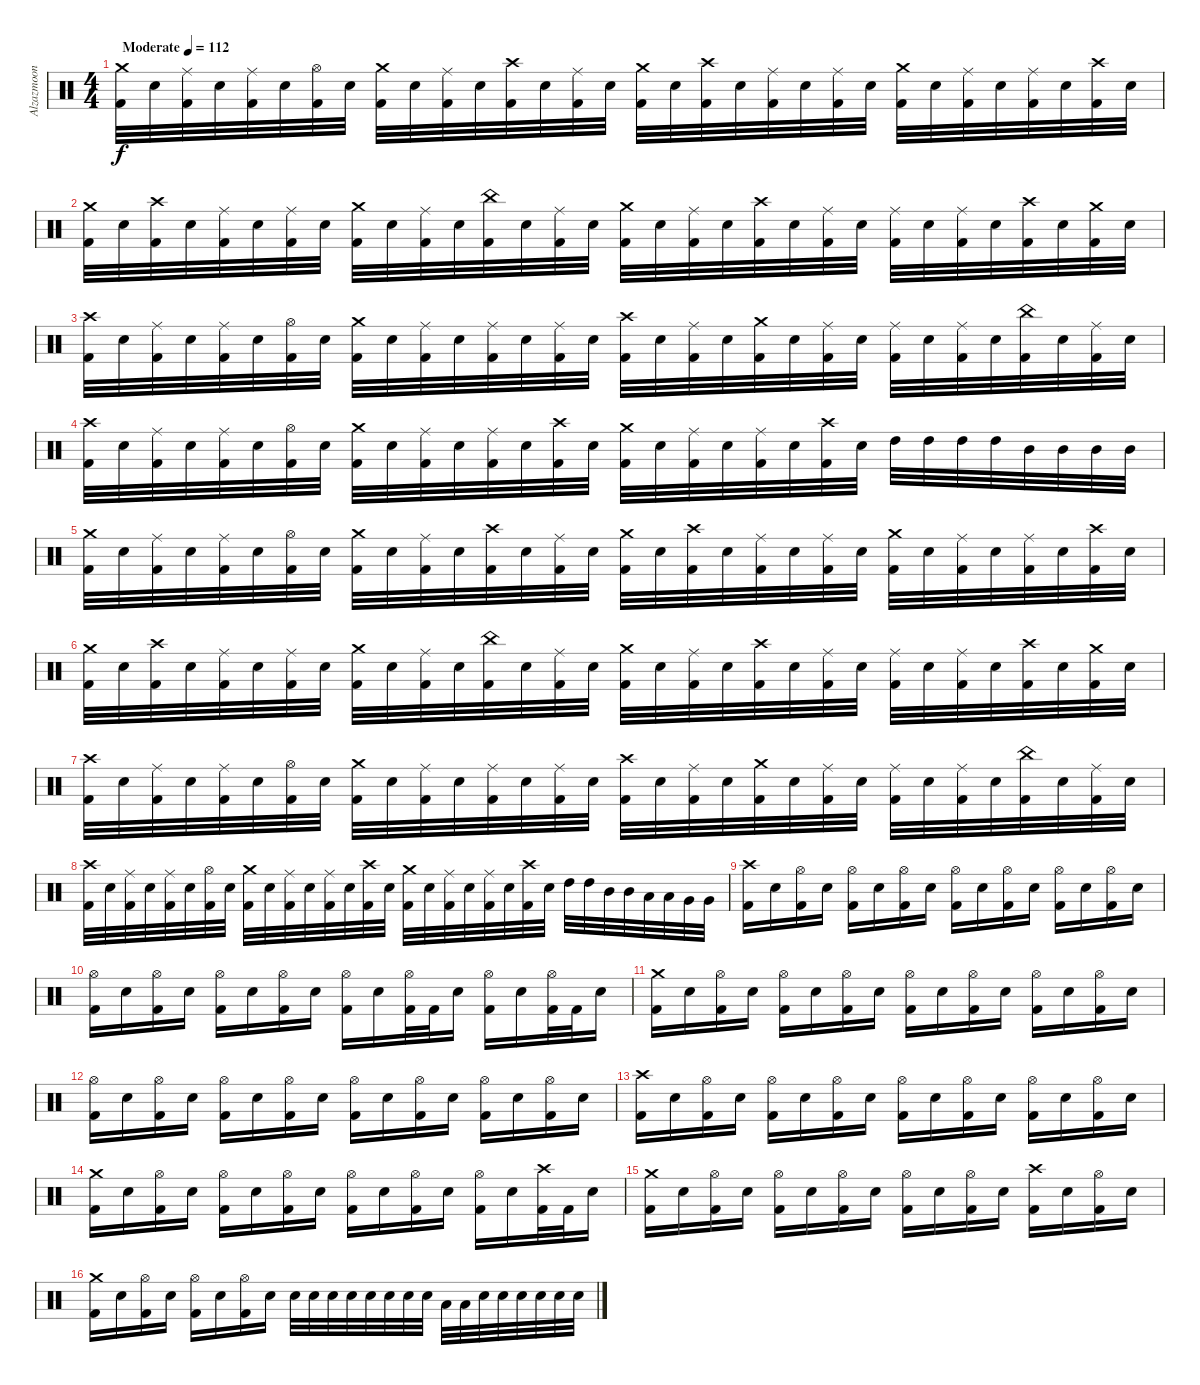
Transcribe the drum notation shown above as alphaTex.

\track ("Alzazmoon" "Alzazmoon") {instrument percussion}
\staff {score}
\articulation defaults
\ts (4 4)
\tempo (112 "Moderate")
\clef neutral
\ks c
("Crash medium (hit)" "Kick (hit) 2").32{dy f} "Snare (hit) 2".32 ("Ride (middle)" "Kick (hit) 2").32 "Snare (hit) 2".32 ("Ride (middle)" "Kick (hit) 2").32 "Snare (hit) 2".32 ("Hi-Hat (open)" "Kick (hit) 2").32 "Snare (hit) 2".32 ("Crash medium (hit)" "Kick (hit) 2").32 "Snare (hit) 2".32 ("Ride (middle)" "Kick (hit) 2").32 "Snare (hit) 2".32 ("Crash high (hit)" "Kick (hit) 2").32 "Snare (hit) 2".32 ("Ride (middle)" "Kick (hit) 2").32 "Snare (hit) 2".32 ("Crash medium (hit)" "Kick (hit) 2").32 "Snare (hit) 2".32 ("Crash high (hit)" "Kick (hit) 2").32 "Snare (hit) 2".32 ("Ride (middle)" "Kick (hit) 2").32 "Snare (hit) 2".32 ("Ride (middle)" "Kick (hit) 2").32 "Snare (hit) 2".32 ("Crash medium (hit)" "Kick (hit) 2").32 "Snare (hit) 2".32 ("Ride (middle)" "Kick (hit) 2").32 "Snare (hit) 2".32 ("Ride (middle)" "Kick (hit) 2").32 "Snare (hit) 2".32 ("Crash high (hit)" "Kick (hit) 2").32 "Snare (hit) 2".32 |
("Crash medium (hit)" "Kick (hit) 2").32 "Snare (hit) 2".32 ("Crash high (hit)" "Kick (hit) 2").32 "Snare (hit) 2".32 ("Ride (middle)" "Kick (hit) 2").32 "Snare (hit) 2".32 ("Ride (middle)" "Kick (hit) 2").32 "Snare (hit) 2".32 ("Crash medium (hit)" "Kick (hit) 2").32 "Snare (hit) 2".32 ("Ride (middle)" "Kick (hit) 2").32 "Snare (hit) 2".32 ("China (hit)" "Kick (hit) 2").32 "Snare (hit) 2".32 ("Ride (middle)" "Kick (hit) 2").32 "Snare (hit) 2".32 ("Crash medium (hit)" "Kick (hit) 2").32 "Snare (hit) 2".32 ("Ride (middle)" "Kick (hit) 2").32 "Snare (hit) 2".32 ("Crash high (hit)" "Kick (hit) 2").32 "Snare (hit) 2".32 ("Ride (middle)" "Kick (hit) 2").32 "Snare (hit) 2".32 ("Ride (middle)" "Kick (hit) 2").32 "Snare (hit) 2".32 ("Ride (middle)" "Kick (hit) 2").32 "Snare (hit) 2".32 ("Crash high (hit)" "Kick (hit) 2").32 "Snare (hit) 2".32 ("Crash medium (hit)" "Kick (hit) 2").32 "Snare (hit) 2".32 |
("Crash high (hit)" "Kick (hit) 2").32 "Snare (hit) 2".32 ("Ride (middle)" "Kick (hit) 2").32 "Snare (hit) 2".32 ("Ride (middle)" "Kick (hit) 2").32 "Snare (hit) 2".32 ("Hi-Hat (open)" "Kick (hit) 2").32 "Snare (hit) 2".32 ("Crash medium (hit)" "Kick (hit) 2").32 "Snare (hit) 2".32 ("Ride (middle)" "Kick (hit) 2").32 "Snare (hit) 2".32 ("Ride (middle)" "Kick (hit) 2").32 "Snare (hit) 2".32 ("Ride (middle)" "Kick (hit) 2").32 "Snare (hit) 2".32 ("Crash high (hit)" "Kick (hit) 2").32 "Snare (hit) 2".32 ("Ride (middle)" "Kick (hit) 2").32 "Snare (hit) 2".32 ("Crash medium (hit)" "Kick (hit) 2").32 "Snare (hit) 2".32 ("Ride (middle)" "Kick (hit) 2").32 "Snare (hit) 2".32 ("Ride (middle)" "Kick (hit) 2").32 "Snare (hit) 2".32 ("Ride (middle)" "Kick (hit) 2").32 "Snare (hit) 2".32 ("China (hit)" "Kick (hit) 2").32 "Snare (hit) 2".32 ("Ride (middle)" "Kick (hit) 2").32 "Snare (hit) 2".32 |
("Crash high (hit)" "Kick (hit) 2").32 "Snare (hit) 2".32 ("Ride (middle)" "Kick (hit) 2").32 "Snare (hit) 2".32 ("Ride (middle)" "Kick (hit) 2").32 "Snare (hit) 2".32 ("Hi-Hat (open)" "Kick (hit) 2").32 "Snare (hit) 2".32 ("Crash medium (hit)" "Kick (hit) 2").32 "Snare (hit) 2".32 ("Ride (middle)" "Kick (hit) 2").32 "Snare (hit) 2".32 ("Ride (middle)" "Kick (hit) 2").32 "Snare (hit) 2".32 ("Crash high (hit)" "Kick (hit) 2").32 "Snare (hit) 2".32 ("Crash medium (hit)" "Kick (hit) 2").32 "Snare (hit) 2".32 ("Ride (middle)" "Kick (hit) 2").32 "Snare (hit) 2".32 ("Ride (middle)" "Kick (hit) 2").32 "Snare (hit) 2".32 ("Crash high (hit)" "Kick (hit) 2").32 "Snare (hit) 2".32 "High Tom (hit)".32 "High Tom (hit)".32 "High Tom (hit)".32 "High Tom (hit)".32 "Mid Tom (hit)".32 "Mid Tom (hit)".32 "Mid Tom (hit)".32 "Mid Tom (hit)".32 |
("Crash medium (hit)" "Kick (hit) 2").32 "Snare (hit) 2".32 ("Ride (middle)" "Kick (hit) 2").32 "Snare (hit) 2".32 ("Ride (middle)" "Kick (hit) 2").32 "Snare (hit) 2".32 ("Hi-Hat (open)" "Kick (hit) 2").32 "Snare (hit) 2".32 ("Crash medium (hit)" "Kick (hit) 2").32 "Snare (hit) 2".32 ("Ride (middle)" "Kick (hit) 2").32 "Snare (hit) 2".32 ("Crash high (hit)" "Kick (hit) 2").32 "Snare (hit) 2".32 ("Ride (middle)" "Kick (hit) 2").32 "Snare (hit) 2".32 ("Crash medium (hit)" "Kick (hit) 2").32 "Snare (hit) 2".32 ("Crash high (hit)" "Kick (hit) 2").32 "Snare (hit) 2".32 ("Ride (middle)" "Kick (hit) 2").32 "Snare (hit) 2".32 ("Ride (middle)" "Kick (hit) 2").32 "Snare (hit) 2".32 ("Crash medium (hit)" "Kick (hit) 2").32 "Snare (hit) 2".32 ("Ride (middle)" "Kick (hit) 2").32 "Snare (hit) 2".32 ("Ride (middle)" "Kick (hit) 2").32 "Snare (hit) 2".32 ("Crash high (hit)" "Kick (hit) 2").32 "Snare (hit) 2".32 |
("Crash medium (hit)" "Kick (hit) 2").32 "Snare (hit) 2".32 ("Crash high (hit)" "Kick (hit) 2").32 "Snare (hit) 2".32 ("Ride (middle)" "Kick (hit) 2").32 "Snare (hit) 2".32 ("Ride (middle)" "Kick (hit) 2").32 "Snare (hit) 2".32 ("Crash medium (hit)" "Kick (hit) 2").32 "Snare (hit) 2".32 ("Ride (middle)" "Kick (hit) 2").32 "Snare (hit) 2".32 ("China (hit)" "Kick (hit) 2").32 "Snare (hit) 2".32 ("Ride (middle)" "Kick (hit) 2").32 "Snare (hit) 2".32 ("Crash medium (hit)" "Kick (hit) 2").32 "Snare (hit) 2".32 ("Ride (middle)" "Kick (hit) 2").32 "Snare (hit) 2".32 ("Crash high (hit)" "Kick (hit) 2").32 "Snare (hit) 2".32 ("Ride (middle)" "Kick (hit) 2").32 "Snare (hit) 2".32 ("Ride (middle)" "Kick (hit) 2").32 "Snare (hit) 2".32 ("Ride (middle)" "Kick (hit) 2").32 "Snare (hit) 2".32 ("Crash high (hit)" "Kick (hit) 2").32 "Snare (hit) 2".32 ("Crash medium (hit)" "Kick (hit) 2").32 "Snare (hit) 2".32 |
("Crash high (hit)" "Kick (hit) 2").32 "Snare (hit) 2".32 ("Ride (middle)" "Kick (hit) 2").32 "Snare (hit) 2".32 ("Ride (middle)" "Kick (hit) 2").32 "Snare (hit) 2".32 ("Hi-Hat (open)" "Kick (hit) 2").32 "Snare (hit) 2".32 ("Crash medium (hit)" "Kick (hit) 2").32 "Snare (hit) 2".32 ("Ride (middle)" "Kick (hit) 2").32 "Snare (hit) 2".32 ("Ride (middle)" "Kick (hit) 2").32 "Snare (hit) 2".32 ("Ride (middle)" "Kick (hit) 2").32 "Snare (hit) 2".32 ("Crash high (hit)" "Kick (hit) 2").32 "Snare (hit) 2".32 ("Ride (middle)" "Kick (hit) 2").32 "Snare (hit) 2".32 ("Crash medium (hit)" "Kick (hit) 2").32 "Snare (hit) 2".32 ("Ride (middle)" "Kick (hit) 2").32 "Snare (hit) 2".32 ("Ride (middle)" "Kick (hit) 2").32 "Snare (hit) 2".32 ("Ride (middle)" "Kick (hit) 2").32 "Snare (hit) 2".32 ("China (hit)" "Kick (hit) 2").32 "Snare (hit) 2".32 ("Ride (middle)" "Kick (hit) 2").32 "Snare (hit) 2".32 |
("Crash high (hit)" "Kick (hit) 2").32 "Snare (hit) 2".32 ("Ride (middle)" "Kick (hit) 2").32 "Snare (hit) 2".32 ("Ride (middle)" "Kick (hit) 2").32 "Snare (hit) 2".32 ("Hi-Hat (open)" "Kick (hit) 2").32 "Snare (hit) 2".32 ("Crash medium (hit)" "Kick (hit) 2").32 "Snare (hit) 2".32 ("Ride (middle)" "Kick (hit) 2").32 "Snare (hit) 2".32 ("Ride (middle)" "Kick (hit) 2").32 "Snare (hit) 2".32 ("Crash high (hit)" "Kick (hit) 2").32 "Snare (hit) 2".32 ("Crash medium (hit)" "Kick (hit) 2").32 "Snare (hit) 2".32 ("Ride (middle)" "Kick (hit) 2").32 "Snare (hit) 2".32 ("Ride (middle)" "Kick (hit) 2").32 "Snare (hit) 2".32 ("Crash high (hit)" "Kick (hit) 2").32 "Snare (hit) 2".32 "High Tom (hit)".32 "High Tom (hit)".32 "Mid Tom (hit)".32 "Mid Tom (hit)".32 "Low Tom (hit)".32 "Low Tom (hit)".32 "Very Low Tom (hit)".32 "Very Low Tom (hit)".32 |
("Crash high (hit)" "Kick (hit) 2").16 "Snare (hit) 2".16 ("Hi-Hat (open)" "Kick (hit) 2").16 "Snare (hit) 2".16 ("Hi-Hat (open)" "Kick (hit) 2").16 "Snare (hit) 2".16 ("Hi-Hat (open)" "Kick (hit) 2").16 "Snare (hit) 2".16 ("Hi-Hat (open)" "Kick (hit) 2").16 "Snare (hit) 2".16 ("Hi-Hat (open)" "Kick (hit) 2").16 "Snare (hit) 2".16 ("Hi-Hat (open)" "Kick (hit) 2").16 "Snare (hit) 2".16 ("Hi-Hat (open)" "Kick (hit) 2").16 "Snare (hit) 2".16 |
("Hi-Hat (open)" "Kick (hit) 2").16 "Snare (hit) 2".16 ("Hi-Hat (open)" "Kick (hit) 2").16 "Snare (hit) 2".16 ("Hi-Hat (open)" "Kick (hit) 2").16 "Snare (hit) 2".16 ("Hi-Hat (open)" "Kick (hit) 2").16 "Snare (hit) 2".16 ("Hi-Hat (open)" "Kick (hit) 2").16 "Snare (hit) 2".16 ("Hi-Hat (open)" "Kick (hit) 2").32 "Kick (hit) 2".32 "Snare (hit) 2".16 ("Hi-Hat (open)" "Kick (hit) 2").16 "Snare (hit) 2".16 ("Hi-Hat (open)" "Kick (hit) 2").32 "Kick (hit) 2".32 "Snare (hit) 2".16 |
("Crash medium (hit)" "Kick (hit) 2").16 "Snare (hit) 2".16 ("Hi-Hat (open)" "Kick (hit) 2").16 "Snare (hit) 2".16 ("Hi-Hat (open)" "Kick (hit) 2").16 "Snare (hit) 2".16 ("Hi-Hat (open)" "Kick (hit) 2").16 "Snare (hit) 2".16 ("Hi-Hat (open)" "Kick (hit) 2").16 "Snare (hit) 2".16 ("Hi-Hat (open)" "Kick (hit) 2").16 "Snare (hit) 2".16 ("Hi-Hat (open)" "Kick (hit) 2").16 "Snare (hit) 2".16 ("Hi-Hat (open)" "Kick (hit) 2").16 "Snare (hit) 2".16 |
("Hi-Hat (open)" "Kick (hit) 2").16 "Snare (hit) 2".16 ("Hi-Hat (open)" "Kick (hit) 2").16 "Snare (hit) 2".16 ("Hi-Hat (open)" "Kick (hit) 2").16 "Snare (hit) 2".16 ("Hi-Hat (open)" "Kick (hit) 2").16 "Snare (hit) 2".16 ("Hi-Hat (open)" "Kick (hit) 2").16 "Snare (hit) 2".16 ("Hi-Hat (open)" "Kick (hit) 2").16 "Snare (hit) 2".16 ("Hi-Hat (open)" "Kick (hit) 2").16 "Snare (hit) 2".16 ("Hi-Hat (open)" "Kick (hit) 2").16 "Snare (hit) 2".16 |
("Crash high (hit)" "Kick (hit) 2").16 "Snare (hit) 2".16 ("Hi-Hat (open)" "Kick (hit) 2").16 "Snare (hit) 2".16 ("Hi-Hat (open)" "Kick (hit) 2").16 "Snare (hit) 2".16 ("Hi-Hat (open)" "Kick (hit) 2").16 "Snare (hit) 2".16 ("Hi-Hat (open)" "Kick (hit) 2").16 "Snare (hit) 2".16 ("Hi-Hat (open)" "Kick (hit) 2").16 "Snare (hit) 2".16 ("Hi-Hat (open)" "Kick (hit) 2").16 "Snare (hit) 2".16 ("Hi-Hat (open)" "Kick (hit) 2").16 "Snare (hit) 2".16 |
("Crash medium (hit)" "Kick (hit) 2").16 "Snare (hit) 2".16 ("Hi-Hat (open)" "Kick (hit) 2").16 "Snare (hit) 2".16 ("Hi-Hat (open)" "Kick (hit) 2").16 "Snare (hit) 2".16 ("Hi-Hat (open)" "Kick (hit) 2").16 "Snare (hit) 2".16 ("Hi-Hat (open)" "Kick (hit) 2").16 "Snare (hit) 2".16 ("Hi-Hat (open)" "Kick (hit) 2").16 "Snare (hit) 2".16 ("Hi-Hat (open)" "Kick (hit) 2").16 "Snare (hit) 2".16 ("Crash high (hit)" "Kick (hit) 2").32 "Kick (hit) 2".32 "Snare (hit) 2".16 |
("Crash medium (hit)" "Kick (hit) 2").16 "Snare (hit) 2".16 ("Hi-Hat (open)" "Kick (hit) 2").16 "Snare (hit) 2".16 ("Hi-Hat (open)" "Kick (hit) 2").16 "Snare (hit) 2".16 ("Hi-Hat (open)" "Kick (hit) 2").16 "Snare (hit) 2".16 ("Hi-Hat (open)" "Kick (hit) 2").16 "Snare (hit) 2".16 ("Hi-Hat (open)" "Kick (hit) 2").16 "Snare (hit) 2".16 ("Crash high (hit)" "Kick (hit) 2").16 "Snare (hit) 2".16 ("Hi-Hat (open)" "Kick (hit) 2").16 "Snare (hit) 2".16 |
("Crash medium (hit)" "Kick (hit) 2").16 "Snare (hit) 2".16 ("Hi-Hat (open)" "Kick (hit) 2").16 "Snare (hit) 2".16 ("Hi-Hat (open)" "Kick (hit) 2").16 "Snare (hit) 2".16 ("Hi-Hat (open)" "Kick (hit) 2").16 "Snare (hit) 2".16 "Snare (hit) 2".32 "Snare (hit) 2".32 "Snare (hit) 2".32 "Snare (hit) 2".32 "Snare (hit) 2".32 "Snare (hit) 2".32 "Snare (hit) 2".32 "Snare (hit) 2".32 "Low Tom (hit)".32 "Low Tom (hit)".32 "Snare (hit) 2".32 "Snare (hit) 2".32 "Snare (hit) 2".32 "Snare (hit) 2".32 "Snare (hit) 2".32 "Snare (hit) 2".32
